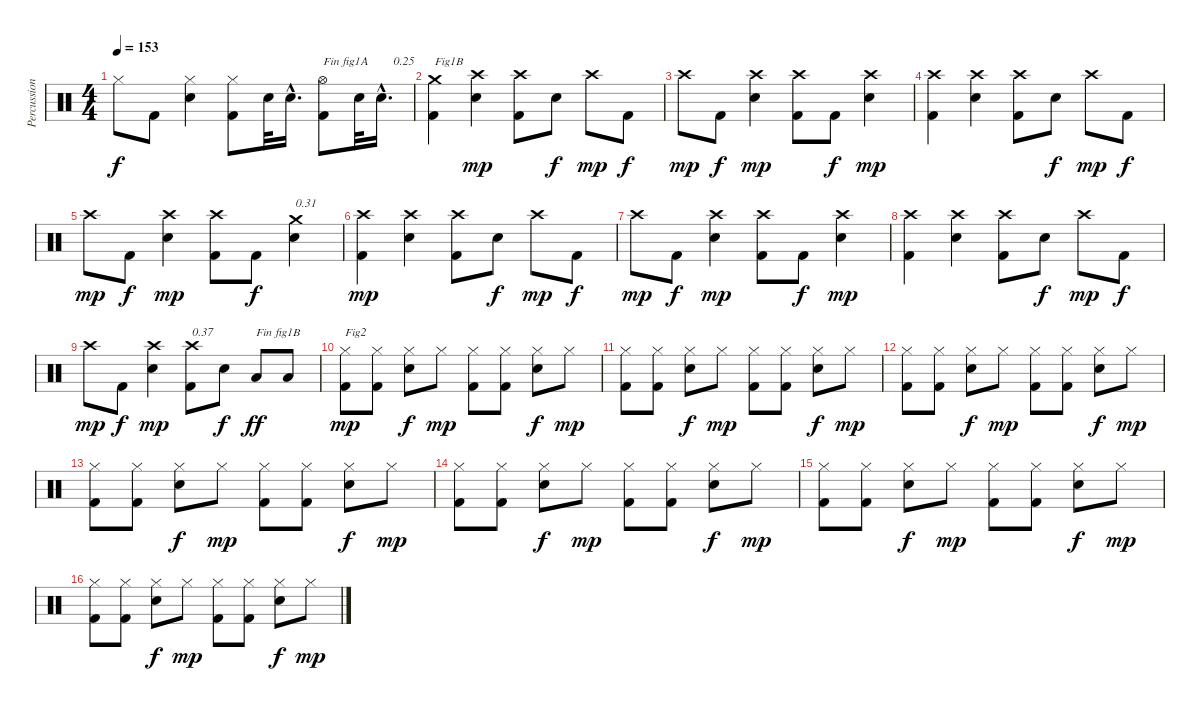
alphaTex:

\track ("Percussions" "Percussion") {instrument percussion}
\staff {score}
\articulation defaults
\ts (4 4)
\tempo 153
\clef neutral
\ks c "Hi-Hat (closed)".8{dy f} "Kick (hit) 2".8
("Electric Snare (hit)" "Hi-Hat (closed)").4 ("Kick (hit) 2" "Hi-Hat (closed)").8 "Electric Snare (hit)".32 "Electric Snare (hit)"{hac}.16{d} ("Kick (hit) 2" "Hi-Hat (open)").8{txt "Fin fig1A"} "Electric Snare (hit)".32 "Electric Snare (hit)"{hac}.16{d txt "    0.25"} |
("Kick (hit) 2" "Crash medium (hit)").4{txt "Fig1B"} ("Electric Snare (hit)" "Crash high (hit)").4{dy mp} ("Kick (hit) 2" "Crash high (hit)").8 "Electric Snare (hit)".8{dy f} "Crash high (hit)".8{dy mp} "Kick (hit) 2".8{dy f} |
"Crash high (hit)".8{dy mp} "Kick (hit) 2".8{dy f} ("Electric Snare (hit)" "Crash high (hit)").4{dy mp} ("Kick (hit) 2" "Crash high (hit)").8 "Kick (hit) 2".8{dy f} ("Electric Snare (hit)" "Crash high (hit)").4{dy mp} |
("Kick (hit) 2" "Crash high (hit)").4 ("Electric Snare (hit)" "Crash high (hit)").4 ("Kick (hit) 2" "Crash high (hit)").8 "Electric Snare (hit)".8{dy f} "Crash high (hit)".8{dy mp} "Kick (hit) 2".8{dy f} |
"Crash high (hit)".8{dy mp} "Kick (hit) 2".8{dy f} ("Electric Snare (hit)" "Crash high (hit)").4{dy mp} ("Kick (hit) 2" "Crash high (hit)").8 "Kick (hit) 2".8{dy f} ("Electric Snare (hit)" "Crash medium (hit)").4{txt "0.31"} |
("Kick (hit) 2" "Crash high (hit)").4{dy mp} ("Electric Snare (hit)" "Crash high (hit)").4 ("Kick (hit) 2" "Crash high (hit)").8 "Electric Snare (hit)".8{dy f} "Crash high (hit)".8{dy mp} "Kick (hit) 2".8{dy f} |
"Crash high (hit)".8{dy mp} "Kick (hit) 2".8{dy f} ("Electric Snare (hit)" "Crash high (hit)").4{dy mp} ("Kick (hit) 2" "Crash high (hit)").8 "Kick (hit) 2".8{dy f} ("Electric Snare (hit)" "Crash high (hit)").4{dy mp} |
("Kick (hit) 2" "Crash high (hit)").4 ("Electric Snare (hit)" "Crash high (hit)").4 ("Kick (hit) 2" "Crash high (hit)").8 "Electric Snare (hit)".8{dy f} "Crash high (hit)".8{dy mp} "Kick (hit) 2".8{dy f} |
"Crash high (hit)".8{dy mp} "Kick (hit) 2".8{dy f} ("Electric Snare (hit)" "Crash high (hit)").4{dy mp} ("Kick (hit) 2" "Crash high (hit)").8{txt "0.37"} "Electric Snare (hit)".8{dy f} "Low Floor Tom (hit)".8{txt "Fin fig1B" dy ff} "Low Floor Tom (hit)".8 |
("Kick (hit) 2" "Hi-Hat (closed)").8{txt "Fig2" dy mp} ("Kick (hit) 2" "Hi-Hat (closed)").8 ("Electric Snare (hit)" "Hi-Hat (closed)").8{dy f} "Hi-Hat (closed)".8{dy mp} ("Kick (hit) 2" "Hi-Hat (closed)").8 ("Kick (hit) 2" "Hi-Hat (closed)").8 ("Electric Snare (hit)" "Hi-Hat (closed)").8{dy f} "Hi-Hat (closed)".8{dy mp} |
("Kick (hit) 2" "Hi-Hat (closed)").8 ("Kick (hit) 2" "Hi-Hat (closed)").8 ("Electric Snare (hit)" "Hi-Hat (closed)").8{dy f} "Hi-Hat (closed)".8{dy mp} ("Kick (hit) 2" "Hi-Hat (closed)").8 ("Kick (hit) 2" "Hi-Hat (closed)").8 ("Electric Snare (hit)" "Hi-Hat (closed)").8{dy f} "Hi-Hat (closed)".8{dy mp} |
("Kick (hit) 2" "Hi-Hat (closed)").8 ("Kick (hit) 2" "Hi-Hat (closed)").8 ("Electric Snare (hit)" "Hi-Hat (closed)").8{dy f} "Hi-Hat (closed)".8{dy mp} ("Kick (hit) 2" "Hi-Hat (closed)").8 ("Kick (hit) 2" "Hi-Hat (closed)").8 ("Electric Snare (hit)" "Hi-Hat (closed)").8{dy f} "Hi-Hat (closed)".8{dy mp} |
("Kick (hit) 2" "Hi-Hat (closed)").8 ("Kick (hit) 2" "Hi-Hat (closed)").8 ("Electric Snare (hit)" "Hi-Hat (closed)").8{dy f} "Hi-Hat (closed)".8{dy mp} ("Kick (hit) 2" "Hi-Hat (closed)").8 ("Kick (hit) 2" "Hi-Hat (closed)").8 ("Electric Snare (hit)" "Hi-Hat (closed)").8{dy f} "Hi-Hat (closed)".8{dy mp} |
("Kick (hit) 2" "Hi-Hat (closed)").8 ("Kick (hit) 2" "Hi-Hat (closed)").8 ("Electric Snare (hit)" "Hi-Hat (closed)").8{dy f} "Hi-Hat (closed)".8{dy mp} ("Kick (hit) 2" "Hi-Hat (closed)").8 ("Kick (hit) 2" "Hi-Hat (closed)").8 ("Electric Snare (hit)" "Hi-Hat (closed)").8{dy f} "Hi-Hat (closed)".8{dy mp} |
("Kick (hit) 2" "Hi-Hat (closed)").8 ("Kick (hit) 2" "Hi-Hat (closed)").8 ("Electric Snare (hit)" "Hi-Hat (closed)").8{dy f} "Hi-Hat (closed)".8{dy mp} ("Kick (hit) 2" "Hi-Hat (closed)").8 ("Kick (hit) 2" "Hi-Hat (closed)").8 ("Electric Snare (hit)" "Hi-Hat (closed)").8{dy f} "Hi-Hat (closed)".8{dy mp} |
("Kick (hit) 2" "Hi-Hat (closed)").8 ("Kick (hit) 2" "Hi-Hat (closed)").8 ("Electric Snare (hit)" "Hi-Hat (closed)").8{dy f} "Hi-Hat (closed)".8{dy mp} ("Kick (hit) 2" "Hi-Hat (closed)").8 ("Kick (hit) 2" "Hi-Hat (closed)").8 ("Electric Snare (hit)" "Hi-Hat (closed)").8{dy f} "Hi-Hat (closed)".8{dy mp}
